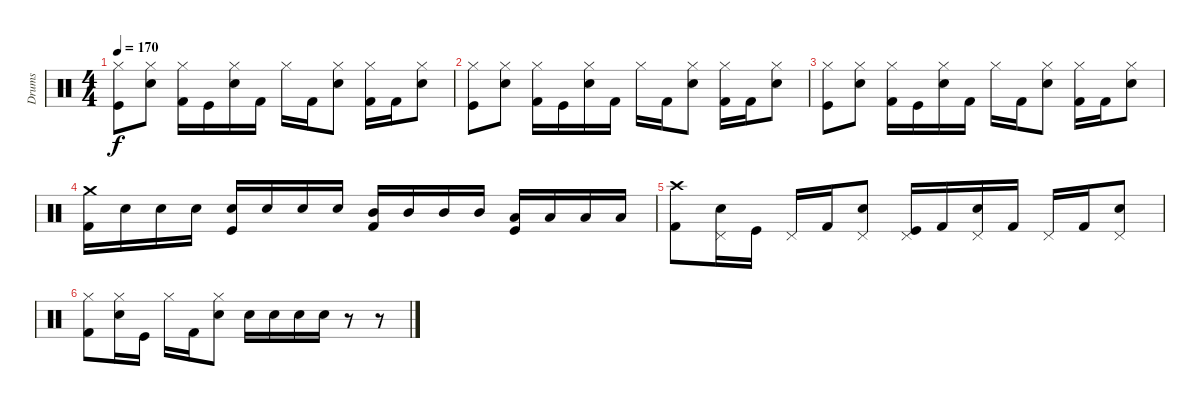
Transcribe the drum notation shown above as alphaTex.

\track ("Drums" "Drums") {instrument percussion}
\staff {score}
\articulation defaults
\ts (4 4)
\tempo 170
\clef neutral
\ks c
("Hi-Hat (closed)" "Kick (hit)").8{dy f} ("Hi-Hat (closed)" "Electric Snare (hit)").8 ("Hi-Hat (closed)" "Kick (hit) 2").16 "Kick (hit)".16 ("Hi-Hat (closed)" "Electric Snare (hit)").16 "Kick (hit) 2".16 "Hi-Hat (closed)".16 "Kick (hit) 2".16 ("Hi-Hat (closed)" "Electric Snare (hit)").8 ("Hi-Hat (closed)" "Kick (hit) 2").16 "Kick (hit) 2".16 ("Hi-Hat (closed)" "Electric Snare (hit)").8 |
("Hi-Hat (closed)" "Kick (hit)").8 ("Hi-Hat (closed)" "Electric Snare (hit)").8 ("Hi-Hat (closed)" "Kick (hit) 2").16 "Kick (hit)".16 ("Hi-Hat (closed)" "Electric Snare (hit)").16 "Kick (hit) 2".16 "Hi-Hat (closed)".16 "Kick (hit) 2".16 ("Hi-Hat (closed)" "Electric Snare (hit)").8 ("Hi-Hat (closed)" "Kick (hit) 2").16 "Kick (hit) 2".16 ("Hi-Hat (closed)" "Electric Snare (hit)").8 |
("Hi-Hat (closed)" "Kick (hit)").8 ("Hi-Hat (closed)" "Electric Snare (hit)").8 ("Hi-Hat (closed)" "Kick (hit) 2").16 "Kick (hit)".16 ("Hi-Hat (closed)" "Electric Snare (hit)").16 "Kick (hit) 2".16 "Hi-Hat (closed)".16 "Kick (hit) 2".16 ("Hi-Hat (closed)" "Electric Snare (hit)").8 ("Hi-Hat (closed)" "Kick (hit) 2").16 "Kick (hit) 2".16 ("Hi-Hat (closed)" "Electric Snare (hit)").8 |
("Crash medium (hit)" "Kick (hit) 2").16 "Electric Snare (hit)".16 "Electric Snare (hit)".16 "Electric Snare (hit)".16 ("Electric Snare (hit)" "Kick (hit)").16 "Electric Snare (hit)".16 "Electric Snare (hit)".16 "Electric Snare (hit)".16 ("Mid Tom (hit)" "Kick (hit) 2").16 "Mid Tom (hit)".16 "Mid Tom (hit)".16 "Mid Tom (hit)".16 ("Low Tom (hit)" "Kick (hit)").16 "Low Tom (hit)".16 "Low Tom (hit)".16 "Low Tom (hit)".16 |
("Crash high (hit)" "Kick (hit) 2").8 ("Pedal Hi-Hat (hit)" "Electric Snare (hit)").16 "Kick (hit)".16 "Pedal Hi-Hat (hit)".16 "Kick (hit) 2".16 ("Pedal Hi-Hat (hit)" "Electric Snare (hit)").8 ("Pedal Hi-Hat (hit)" "Kick (hit)").16 "Kick (hit) 2".16 ("Pedal Hi-Hat (hit)" "Electric Snare (hit)").16 "Kick (hit) 2".16 "Pedal Hi-Hat (hit)".16 "Kick (hit) 2".16 ("Pedal Hi-Hat (hit)" "Electric Snare (hit)").8 |
("Hi-Hat (closed)" "Kick (hit) 2").8 ("Hi-Hat (closed)" "Electric Snare (hit)").16 "Kick (hit)".16 "Hi-Hat (closed)".16 "Kick (hit) 2".16 ("Hi-Hat (closed)" "Electric Snare (hit)").8 "Electric Snare (hit)".16 "Electric Snare (hit)".16 "Electric Snare (hit)".16 "Electric Snare (hit)".16 r.8 r.8
